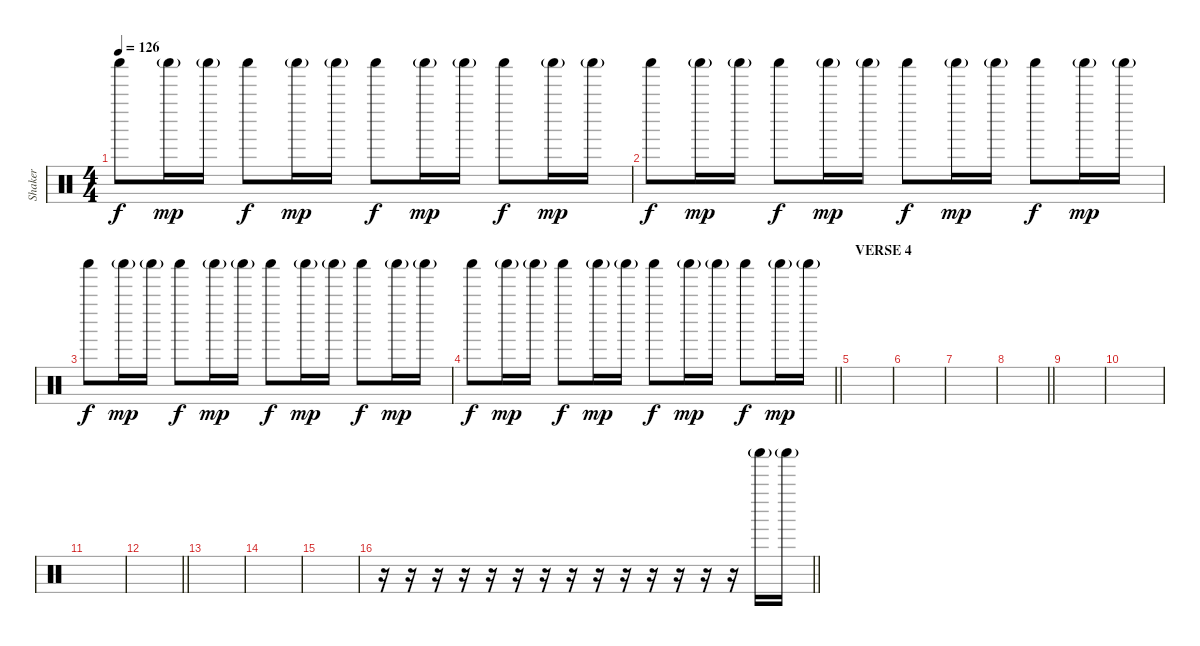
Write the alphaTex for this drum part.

\track ("Shaker" "Shaker") {instrument percussion}
\staff {score}
\articulation defaults
\ts (4 4)
\tempo 126
\clef neutral
\ks c "Shaker (hit)".8{dy f} "Shaker (hit)"{g}.16{dy mp} "Shaker (hit)"{g}.16 "Shaker (hit)".8{dy f} "Shaker (hit)"{g}.16{dy mp} "Shaker (hit)"{g}.16 "Shaker (hit)".8{dy f} "Shaker (hit)"{g}.16{dy mp} "Shaker (hit)"{g}.16 "Shaker (hit)".8{dy f} "Shaker (hit)"{g}.16{dy mp} "Shaker (hit)"{g}.16
|
"Shaker (hit)".8{dy f} "Shaker (hit)"{g}.16{dy mp} "Shaker (hit)"{g}.16 "Shaker (hit)".8{dy f} "Shaker (hit)"{g}.16{dy mp} "Shaker (hit)"{g}.16 "Shaker (hit)".8{dy f} "Shaker (hit)"{g}.16{dy mp} "Shaker (hit)"{g}.16 "Shaker (hit)".8{dy f} "Shaker (hit)"{g}.16{dy mp} "Shaker (hit)"{g}.16 |
"Shaker (hit)".8{dy f} "Shaker (hit)"{g}.16{dy mp} "Shaker (hit)"{g}.16 "Shaker (hit)".8{dy f} "Shaker (hit)"{g}.16{dy mp} "Shaker (hit)"{g}.16 "Shaker (hit)".8{dy f} "Shaker (hit)"{g}.16{dy mp} "Shaker (hit)"{g}.16 "Shaker (hit)".8{dy f} "Shaker (hit)"{g}.16{dy mp} "Shaker (hit)"{g}.16 |
\barLineRight lightlight "Shaker (hit)".8{dy f} "Shaker (hit)"{g}.16{dy mp} "Shaker (hit)"{g}.16 "Shaker (hit)".8{dy f} "Shaker (hit)"{g}.16{dy mp} "Shaker (hit)"{g}.16 "Shaker (hit)".8{dy f} "Shaker (hit)"{g}.16{dy mp} "Shaker (hit)"{g}.16 "Shaker (hit)".8{dy f} "Shaker (hit)"{g}.16{dy mp} "Shaker (hit)"{g}.16
|
\section ("" "VERSE 4")
|
|
|
\barLineRight lightlight
|
|
|
|
\barLineRight lightlight
|
|
|
|
\barLineRight lightlight
r.16 r.16 r.16 r.16 r.16 r.16 r.16 r.16 r.16 r.16 r.16 r.16 r.16 r.16 "Shaker (hit)"{g}.16 "Shaker (hit)"{g}.16
